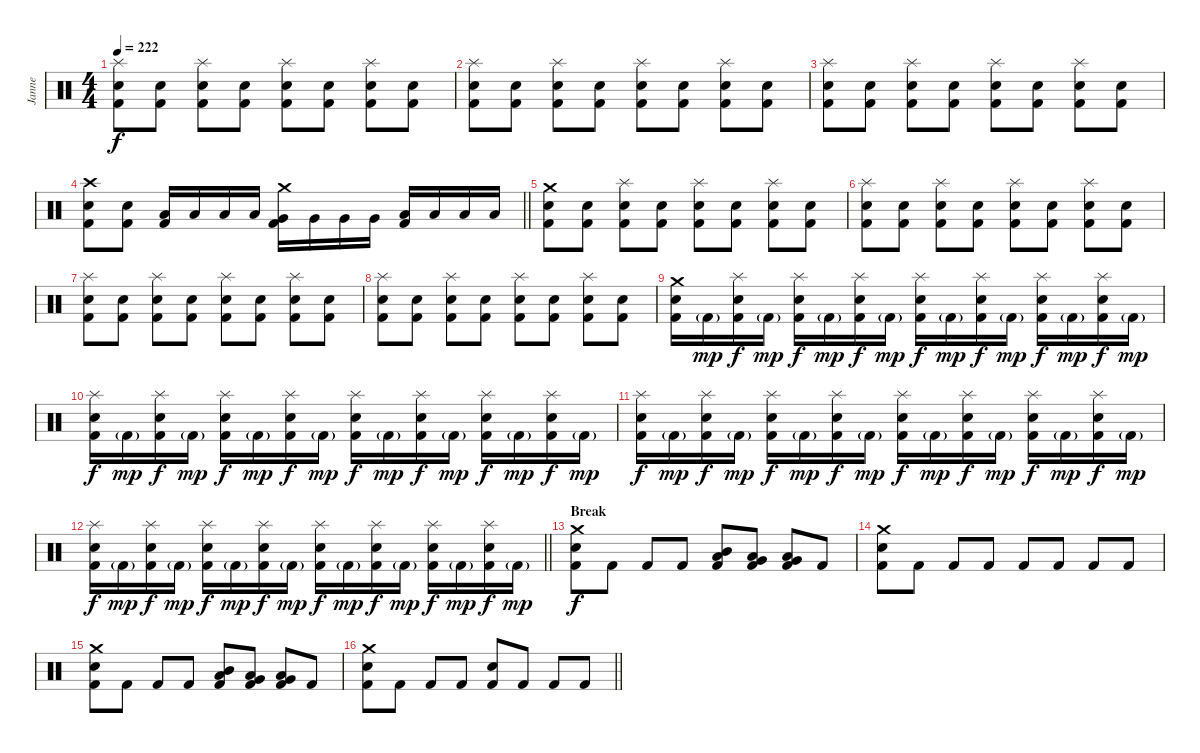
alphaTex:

\track ("Janne" "Janne") {instrument percussion}
\staff {score}
\articulation defaults
\ts (4 4)
\tempo 222
\clef neutral
\ks c
("Kick (hit) 2" "Electric Snare (hit)" "Splash (hit)").8{dy f} ("Kick (hit) 2" "Electric Snare (hit)").8 ("Kick (hit) 2" "Electric Snare (hit)" "Splash (hit)").8 ("Kick (hit) 2" "Electric Snare (hit)").8 ("Kick (hit) 2" "Electric Snare (hit)" "Splash (hit)").8 ("Kick (hit) 2" "Electric Snare (hit)").8 ("Kick (hit) 2" "Electric Snare (hit)" "Splash (hit)").8 ("Kick (hit) 2" "Electric Snare (hit)").8 |
("Kick (hit) 2" "Electric Snare (hit)" "Splash (hit)").8 ("Kick (hit) 2" "Electric Snare (hit)").8 ("Kick (hit) 2" "Electric Snare (hit)" "Splash (hit)").8 ("Kick (hit) 2" "Electric Snare (hit)").8 ("Kick (hit) 2" "Electric Snare (hit)" "Splash (hit)").8 ("Kick (hit) 2" "Electric Snare (hit)").8 ("Kick (hit) 2" "Electric Snare (hit)" "Splash (hit)").8 ("Kick (hit) 2" "Electric Snare (hit)").8 |
("Kick (hit) 2" "Electric Snare (hit)" "Splash (hit)").8 ("Kick (hit) 2" "Electric Snare (hit)").8 ("Kick (hit) 2" "Electric Snare (hit)" "Splash (hit)").8 ("Kick (hit) 2" "Electric Snare (hit)").8 ("Kick (hit) 2" "Electric Snare (hit)" "Splash (hit)").8 ("Kick (hit) 2" "Electric Snare (hit)").8 ("Kick (hit) 2" "Electric Snare (hit)" "Splash (hit)").8 ("Kick (hit) 2" "Electric Snare (hit)").8 |
\barLineRight lightlight
("Kick (hit) 2" "Electric Snare (hit)" "Crash high (hit)").8 ("Kick (hit) 2" "Electric Snare (hit)").8 ("Kick (hit) 2" "Low Tom (hit)").16 "Low Tom (hit)".16 "Low Tom (hit)".16 "Low Tom (hit)".16 ("Kick (hit) 2" "Very Low Tom (hit)" "Crash medium (hit)").16 "Very Low Tom (hit)".16 "Very Low Tom (hit)".16 "Very Low Tom (hit)".16 ("Kick (hit) 2" "Low Floor Tom (hit)").16 "Low Floor Tom (hit)".16 "Low Floor Tom (hit)".16 "Low Floor Tom (hit)".16 |
\section ("" "")
("Kick (hit) 2" "Electric Snare (hit)" "Crash medium (hit)").8 ("Kick (hit) 2" "Electric Snare (hit)").8 ("Kick (hit) 2" "Electric Snare (hit)" "Splash (hit)").8 ("Kick (hit) 2" "Electric Snare (hit)").8 ("Kick (hit) 2" "Electric Snare (hit)" "Splash (hit)").8 ("Kick (hit) 2" "Electric Snare (hit)").8 ("Kick (hit) 2" "Electric Snare (hit)" "Splash (hit)").8 ("Kick (hit) 2" "Electric Snare (hit)").8 |
("Kick (hit) 2" "Electric Snare (hit)" "Splash (hit)").8 ("Kick (hit) 2" "Electric Snare (hit)").8 ("Kick (hit) 2" "Electric Snare (hit)" "Splash (hit)").8 ("Kick (hit) 2" "Electric Snare (hit)").8 ("Kick (hit) 2" "Electric Snare (hit)" "Splash (hit)").8 ("Kick (hit) 2" "Electric Snare (hit)").8 ("Kick (hit) 2" "Electric Snare (hit)" "Splash (hit)").8 ("Kick (hit) 2" "Electric Snare (hit)").8 |
("Kick (hit) 2" "Electric Snare (hit)" "Splash (hit)").8 ("Kick (hit) 2" "Electric Snare (hit)").8 ("Kick (hit) 2" "Electric Snare (hit)" "Splash (hit)").8 ("Kick (hit) 2" "Electric Snare (hit)").8 ("Kick (hit) 2" "Electric Snare (hit)" "Splash (hit)").8 ("Kick (hit) 2" "Electric Snare (hit)").8 ("Kick (hit) 2" "Electric Snare (hit)" "Splash (hit)").8 ("Kick (hit) 2" "Electric Snare (hit)").8 |
("Kick (hit) 2" "Electric Snare (hit)" "Splash (hit)").8 ("Kick (hit) 2" "Electric Snare (hit)").8 ("Kick (hit) 2" "Electric Snare (hit)" "Splash (hit)").8 ("Kick (hit) 2" "Electric Snare (hit)").8 ("Kick (hit) 2" "Electric Snare (hit)" "Splash (hit)").8 ("Kick (hit) 2" "Electric Snare (hit)").8 ("Kick (hit) 2" "Electric Snare (hit)" "Splash (hit)").8 ("Kick (hit) 2" "Electric Snare (hit)").8 |
("Kick (hit) 2" "Electric Snare (hit)" "Crash medium (hit)").16 "Kick (hit) 2"{g}.16{dy mp} ("Kick (hit) 2" "Electric Snare (hit)" "Splash (hit)").16{dy f} "Kick (hit) 2"{g}.16{dy mp} ("Kick (hit) 2" "Electric Snare (hit)" "Splash (hit)").16{dy f} "Kick (hit) 2"{g}.16{dy mp} ("Kick (hit) 2" "Electric Snare (hit)" "Splash (hit)").16{dy f} "Kick (hit) 2"{g}.16{dy mp} ("Kick (hit) 2" "Electric Snare (hit)" "Splash (hit)").16{dy f} "Kick (hit) 2"{g}.16{dy mp} ("Kick (hit) 2" "Electric Snare (hit)" "Splash (hit)").16{dy f} "Kick (hit) 2"{g}.16{dy mp} ("Kick (hit) 2" "Electric Snare (hit)" "Splash (hit)").16{dy f} "Kick (hit) 2"{g}.16{dy mp} ("Kick (hit) 2" "Electric Snare (hit)" "Splash (hit)").16{dy f} "Kick (hit) 2"{g}.16{dy mp} |
("Kick (hit) 2" "Electric Snare (hit)" "Splash (hit)").16{dy f} "Kick (hit) 2"{g}.16{dy mp} ("Kick (hit) 2" "Electric Snare (hit)" "Splash (hit)").16{dy f} "Kick (hit) 2"{g}.16{dy mp} ("Kick (hit) 2" "Electric Snare (hit)" "Splash (hit)").16{dy f} "Kick (hit) 2"{g}.16{dy mp} ("Kick (hit) 2" "Electric Snare (hit)" "Splash (hit)").16{dy f} "Kick (hit) 2"{g}.16{dy mp} ("Kick (hit) 2" "Electric Snare (hit)" "Splash (hit)").16{dy f} "Kick (hit) 2"{g}.16{dy mp} ("Kick (hit) 2" "Electric Snare (hit)" "Splash (hit)").16{dy f} "Kick (hit) 2"{g}.16{dy mp} ("Kick (hit) 2" "Electric Snare (hit)" "Splash (hit)").16{dy f} "Kick (hit) 2"{g}.16{dy mp} ("Kick (hit) 2" "Electric Snare (hit)" "Splash (hit)").16{dy f} "Kick (hit) 2"{g}.16{dy mp} |
("Kick (hit) 2" "Electric Snare (hit)" "Splash (hit)").16{dy f} "Kick (hit) 2"{g}.16{dy mp} ("Kick (hit) 2" "Electric Snare (hit)" "Splash (hit)").16{dy f} "Kick (hit) 2"{g}.16{dy mp} ("Kick (hit) 2" "Electric Snare (hit)" "Splash (hit)").16{dy f} "Kick (hit) 2"{g}.16{dy mp} ("Kick (hit) 2" "Electric Snare (hit)" "Splash (hit)").16{dy f} "Kick (hit) 2"{g}.16{dy mp} ("Kick (hit) 2" "Electric Snare (hit)" "Splash (hit)").16{dy f} "Kick (hit) 2"{g}.16{dy mp} ("Kick (hit) 2" "Electric Snare (hit)" "Splash (hit)").16{dy f} "Kick (hit) 2"{g}.16{dy mp} ("Kick (hit) 2" "Electric Snare (hit)" "Splash (hit)").16{dy f} "Kick (hit) 2"{g}.16{dy mp} ("Kick (hit) 2" "Electric Snare (hit)" "Splash (hit)").16{dy f} "Kick (hit) 2"{g}.16{dy mp} |
\barLineRight lightlight
("Kick (hit) 2" "Electric Snare (hit)" "Splash (hit)").16{dy f} "Kick (hit) 2"{g}.16{dy mp} ("Kick (hit) 2" "Electric Snare (hit)" "Splash (hit)").16{dy f} "Kick (hit) 2"{g}.16{dy mp} ("Kick (hit) 2" "Electric Snare (hit)" "Splash (hit)").16{dy f} "Kick (hit) 2"{g}.16{dy mp} ("Kick (hit) 2" "Electric Snare (hit)" "Splash (hit)").16{dy f} "Kick (hit) 2"{g}.16{dy mp} ("Kick (hit) 2" "Electric Snare (hit)" "Splash (hit)").16{dy f} "Kick (hit) 2"{g}.16{dy mp} ("Kick (hit) 2" "Electric Snare (hit)" "Splash (hit)").16{dy f} "Kick (hit) 2"{g}.16{dy mp} ("Kick (hit) 2" "Electric Snare (hit)" "Splash (hit)").16{dy f} "Kick (hit) 2"{g}.16{dy mp} ("Kick (hit) 2" "Electric Snare (hit)" "Splash (hit)").16{dy f} "Kick (hit) 2"{g}.16{dy mp} |
\section ("" "Break")
("Kick (hit) 2" "Electric Snare (hit)" "Crash medium (hit)").8{dy f} "Kick (hit) 2".8 "Kick (hit) 2".8 "Kick (hit) 2".8 ("Kick (hit) 2" "Mid Tom (hit)" "Low Tom (hit)").8 ("Kick (hit) 2" "Low Tom (hit)" "Very Low Tom (hit)").8 ("Kick (hit) 2" "Very Low Tom (hit)" "Low Floor Tom (hit)").8 "Kick (hit) 2".8 |
("Kick (hit) 2" "Electric Snare (hit)" "Crash medium (hit)").8 "Kick (hit) 2".8 "Kick (hit) 2".8 "Kick (hit) 2".8 "Kick (hit) 2".8 "Kick (hit) 2".8 "Kick (hit) 2".8 "Kick (hit) 2".8 |
("Kick (hit) 2" "Electric Snare (hit)" "Crash medium (hit)").8 "Kick (hit) 2".8 "Kick (hit) 2".8 "Kick (hit) 2".8 ("Kick (hit) 2" "Mid Tom (hit)" "Low Tom (hit)").8 ("Kick (hit) 2" "Low Tom (hit)" "Very Low Tom (hit)").8 ("Kick (hit) 2" "Very Low Tom (hit)" "Low Floor Tom (hit)").8 "Kick (hit) 2".8 |
\barLineRight lightlight
("Kick (hit) 2" "Electric Snare (hit)" "Crash medium (hit)").8 "Kick (hit) 2".8 "Kick (hit) 2".8 "Kick (hit) 2".8 ("Kick (hit) 2" "Electric Snare (hit)").8 "Kick (hit) 2".8 "Kick (hit) 2".8 "Kick (hit) 2".8
